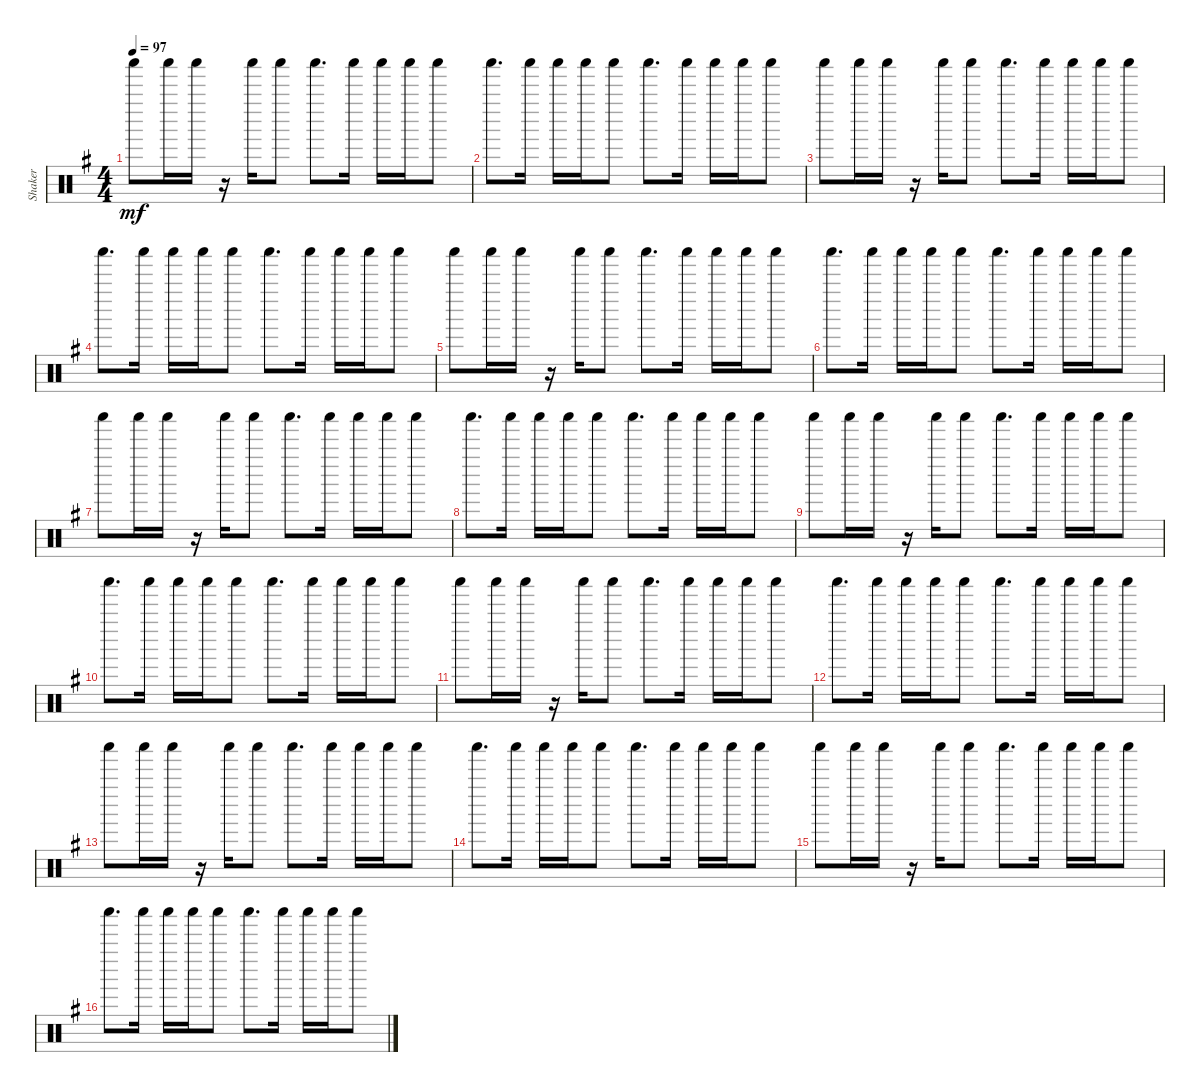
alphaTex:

\track ("Shaker" "Shaker") {instrument percussion}
\staff {score}
\articulation defaults
\ts (4 4)
\tempo 97
\clef neutral
\ks g "Shaker (hit)".8{dy mf} "Shaker (hit)".16 "Shaker (hit)".16
r.16 "Shaker (hit)".16 "Shaker (hit)".8 "Shaker (hit)".8{d} "Shaker (hit)".16 "Shaker (hit)".16 "Shaker (hit)".16 "Shaker (hit)".8 |
"Shaker (hit)".8{d} "Shaker (hit)".16 "Shaker (hit)".16 "Shaker (hit)".16 "Shaker (hit)".8 "Shaker (hit)".8{d} "Shaker (hit)".16 "Shaker (hit)".16 "Shaker (hit)".16 "Shaker (hit)".8 |
"Shaker (hit)".8 "Shaker (hit)".16 "Shaker (hit)".16 r.16 "Shaker (hit)".16 "Shaker (hit)".8 "Shaker (hit)".8{d} "Shaker (hit)".16 "Shaker (hit)".16 "Shaker (hit)".16 "Shaker (hit)".8 |
"Shaker (hit)".8{d} "Shaker (hit)".16 "Shaker (hit)".16 "Shaker (hit)".16 "Shaker (hit)".8 "Shaker (hit)".8{d} "Shaker (hit)".16 "Shaker (hit)".16 "Shaker (hit)".16 "Shaker (hit)".8 |
"Shaker (hit)".8 "Shaker (hit)".16 "Shaker (hit)".16 r.16 "Shaker (hit)".16 "Shaker (hit)".8 "Shaker (hit)".8{d} "Shaker (hit)".16 "Shaker (hit)".16 "Shaker (hit)".16 "Shaker (hit)".8 |
"Shaker (hit)".8{d} "Shaker (hit)".16 "Shaker (hit)".16 "Shaker (hit)".16 "Shaker (hit)".8 "Shaker (hit)".8{d} "Shaker (hit)".16 "Shaker (hit)".16 "Shaker (hit)".16 "Shaker (hit)".8 |
"Shaker (hit)".8 "Shaker (hit)".16 "Shaker (hit)".16 r.16 "Shaker (hit)".16 "Shaker (hit)".8 "Shaker (hit)".8{d} "Shaker (hit)".16 "Shaker (hit)".16 "Shaker (hit)".16 "Shaker (hit)".8 |
"Shaker (hit)".8{d} "Shaker (hit)".16 "Shaker (hit)".16 "Shaker (hit)".16 "Shaker (hit)".8 "Shaker (hit)".8{d} "Shaker (hit)".16 "Shaker (hit)".16 "Shaker (hit)".16 "Shaker (hit)".8 |
"Shaker (hit)".8 "Shaker (hit)".16 "Shaker (hit)".16 r.16 "Shaker (hit)".16 "Shaker (hit)".8 "Shaker (hit)".8{d} "Shaker (hit)".16 "Shaker (hit)".16 "Shaker (hit)".16 "Shaker (hit)".8 |
"Shaker (hit)".8{d} "Shaker (hit)".16 "Shaker (hit)".16 "Shaker (hit)".16 "Shaker (hit)".8 "Shaker (hit)".8{d} "Shaker (hit)".16 "Shaker (hit)".16 "Shaker (hit)".16 "Shaker (hit)".8 |
"Shaker (hit)".8 "Shaker (hit)".16 "Shaker (hit)".16 r.16 "Shaker (hit)".16 "Shaker (hit)".8 "Shaker (hit)".8{d} "Shaker (hit)".16 "Shaker (hit)".16 "Shaker (hit)".16 "Shaker (hit)".8 |
"Shaker (hit)".8{d} "Shaker (hit)".16 "Shaker (hit)".16 "Shaker (hit)".16 "Shaker (hit)".8 "Shaker (hit)".8{d} "Shaker (hit)".16 "Shaker (hit)".16 "Shaker (hit)".16 "Shaker (hit)".8 |
"Shaker (hit)".8 "Shaker (hit)".16 "Shaker (hit)".16 r.16 "Shaker (hit)".16 "Shaker (hit)".8 "Shaker (hit)".8{d} "Shaker (hit)".16 "Shaker (hit)".16 "Shaker (hit)".16 "Shaker (hit)".8 |
"Shaker (hit)".8{d} "Shaker (hit)".16 "Shaker (hit)".16 "Shaker (hit)".16 "Shaker (hit)".8 "Shaker (hit)".8{d} "Shaker (hit)".16 "Shaker (hit)".16 "Shaker (hit)".16 "Shaker (hit)".8 |
"Shaker (hit)".8 "Shaker (hit)".16 "Shaker (hit)".16 r.16 "Shaker (hit)".16 "Shaker (hit)".8 "Shaker (hit)".8{d} "Shaker (hit)".16 "Shaker (hit)".16 "Shaker (hit)".16 "Shaker (hit)".8 |
"Shaker (hit)".8{d} "Shaker (hit)".16 "Shaker (hit)".16 "Shaker (hit)".16 "Shaker (hit)".8 "Shaker (hit)".8{d} "Shaker (hit)".16 "Shaker (hit)".16 "Shaker (hit)".16 "Shaker (hit)".8
